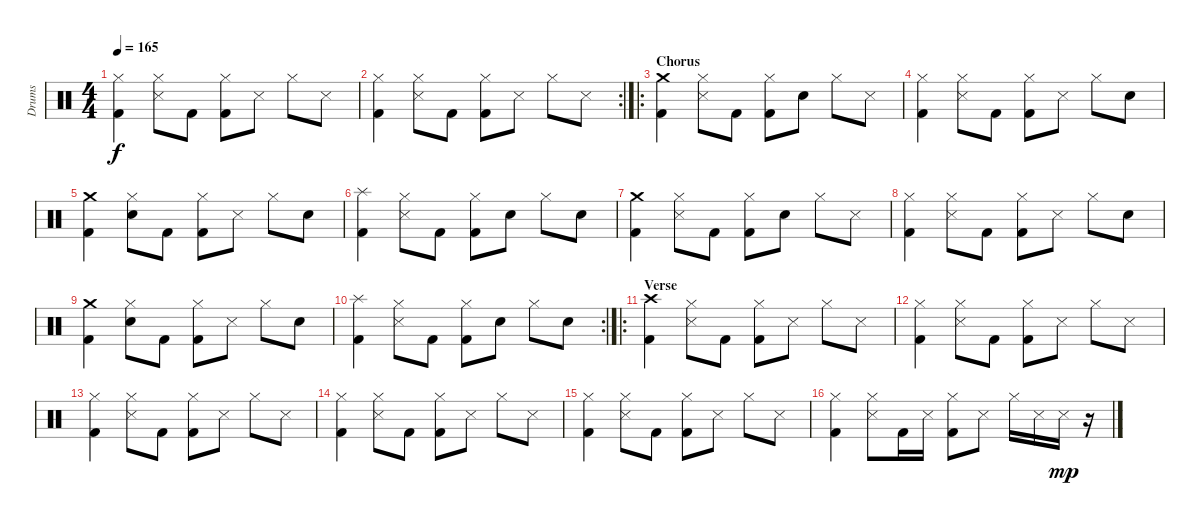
\track ("Drums" "Drums") {instrument percussion}
\staff {score}
\articulation defaults
\ts (4 4)
\tempo 165
\clef neutral
\ks c
("Kick (hit) 2" "Hi-Hat (closed)").4{dy f} ("Snare (side stick) 3" "Hi-Hat (closed)").8 "Kick (hit) 2".8 ("Kick (hit) 2" "Hi-Hat (closed)").8 "Snare (side stick) 3".8 "Hi-Hat (closed)".8 "Snare (side stick) 3".8 |
\rc 2
("Kick (hit) 2" "Hi-Hat (closed)").4 ("Snare (side stick) 3" "Hi-Hat (closed)").8 "Kick (hit) 2".8 ("Kick (hit) 2" "Hi-Hat (closed)").8 "Snare (side stick) 3".8 "Hi-Hat (closed)".8 "Snare (side stick) 3".8 |
\ro
\section ("" "Chorus")
("Kick (hit) 2" "Crash medium (hit)").4 ("Snare (side stick) 3" "Hi-Hat (closed)").8 "Kick (hit) 2".8 ("Kick (hit) 2" "Hi-Hat (closed)").8 "Snare (hit) 2".8 "Hi-Hat (closed)".8 "Snare (side stick) 3".8 |
("Kick (hit) 2" "Hi-Hat (closed)").4 ("Snare (side stick) 3" "Hi-Hat (closed)").8 "Kick (hit) 2".8 ("Kick (hit) 2" "Hi-Hat (closed)").8 "Snare (side stick) 3".8 "Hi-Hat (closed)".8 "Snare (hit) 2".8 |
("Kick (hit) 2" "Crash medium (hit)").4 ("Snare (hit) 2" "Hi-Hat (closed)").8 "Kick (hit) 2".8 ("Kick (hit) 2" "Hi-Hat (closed)").8 "Snare (side stick) 3".8 "Hi-Hat (closed)".8 "Snare (hit) 2".8 |
("Kick (hit) 2" "Splash (hit)").4 ("Snare (side stick) 3" "Hi-Hat (closed)").8 "Kick (hit) 2".8 ("Kick (hit) 2" "Hi-Hat (closed)").8 "Snare (hit) 2".8 "Hi-Hat (closed)".8 "Snare (hit) 2".8 |
("Kick (hit) 2" "Crash medium (hit)").4 ("Snare (side stick) 3" "Hi-Hat (closed)").8 "Kick (hit) 2".8 ("Kick (hit) 2" "Hi-Hat (closed)").8 "Snare (hit) 2".8 "Hi-Hat (closed)".8 "Snare (side stick) 3".8 |
("Kick (hit) 2" "Hi-Hat (closed)").4 ("Snare (side stick) 3" "Hi-Hat (closed)").8 "Kick (hit) 2".8 ("Kick (hit) 2" "Hi-Hat (closed)").8 "Snare (side stick) 3".8 "Hi-Hat (closed)".8 "Snare (hit) 2".8 |
("Kick (hit) 2" "Crash medium (hit)").4 ("Snare (hit) 2" "Hi-Hat (closed)").8 "Kick (hit) 2".8 ("Kick (hit) 2" "Hi-Hat (closed)").8 "Snare (side stick) 3".8 "Hi-Hat (closed)".8 "Snare (hit) 2".8 |
\rc 2
("Kick (hit) 2" "Splash (hit)").4 ("Snare (side stick) 3" "Hi-Hat (closed)").8 "Kick (hit) 2".8 ("Kick (hit) 2" "Hi-Hat (closed)").8 "Snare (hit) 2".8 "Hi-Hat (closed)".8 "Snare (hit) 2".8 |
\ro
\section ("" "Verse")
("Kick (hit) 2" "Crash high (hit)").4 ("Snare (side stick) 3" "Hi-Hat (closed)").8 "Kick (hit) 2".8 ("Kick (hit) 2" "Hi-Hat (closed)").8 "Snare (side stick) 3".8 "Hi-Hat (closed)".8 "Snare (side stick) 3".8 |
("Kick (hit) 2" "Hi-Hat (closed)").4 ("Snare (side stick) 3" "Hi-Hat (closed)").8 "Kick (hit) 2".8 ("Kick (hit) 2" "Hi-Hat (closed)").8 "Snare (side stick) 3".8 "Hi-Hat (closed)".8 "Snare (side stick) 3".8 |
("Kick (hit) 2" "Hi-Hat (closed)").4 ("Snare (side stick) 3" "Hi-Hat (closed)").8 "Kick (hit) 2".8 ("Kick (hit) 2" "Hi-Hat (closed)").8 "Snare (side stick) 3".8 "Hi-Hat (closed)".8 "Snare (side stick) 3".8 |
("Kick (hit) 2" "Hi-Hat (closed)").4 ("Snare (side stick) 3" "Hi-Hat (closed)").8 "Kick (hit) 2".8 ("Kick (hit) 2" "Hi-Hat (closed)").8 "Snare (side stick) 3".8 "Hi-Hat (closed)".8 "Snare (side stick) 3".8 |
("Kick (hit) 2" "Hi-Hat (closed)").4 ("Snare (side stick) 3" "Hi-Hat (closed)").8 "Kick (hit) 2".8 ("Kick (hit) 2" "Hi-Hat (closed)").8 "Snare (side stick) 3".8 "Hi-Hat (closed)".8 "Snare (side stick) 3".8 |
("Kick (hit) 2" "Hi-Hat (closed)").4 ("Snare (side stick) 3" "Hi-Hat (closed)").8 "Kick (hit) 2".16 "Snare (side stick) 3".16 ("Kick (hit) 2" "Hi-Hat (closed)").8 "Snare (side stick) 3".8 "Hi-Hat (closed)".16 "Snare (side stick) 3".16 "Snare (side stick) 3".16{dy mp} r.16
